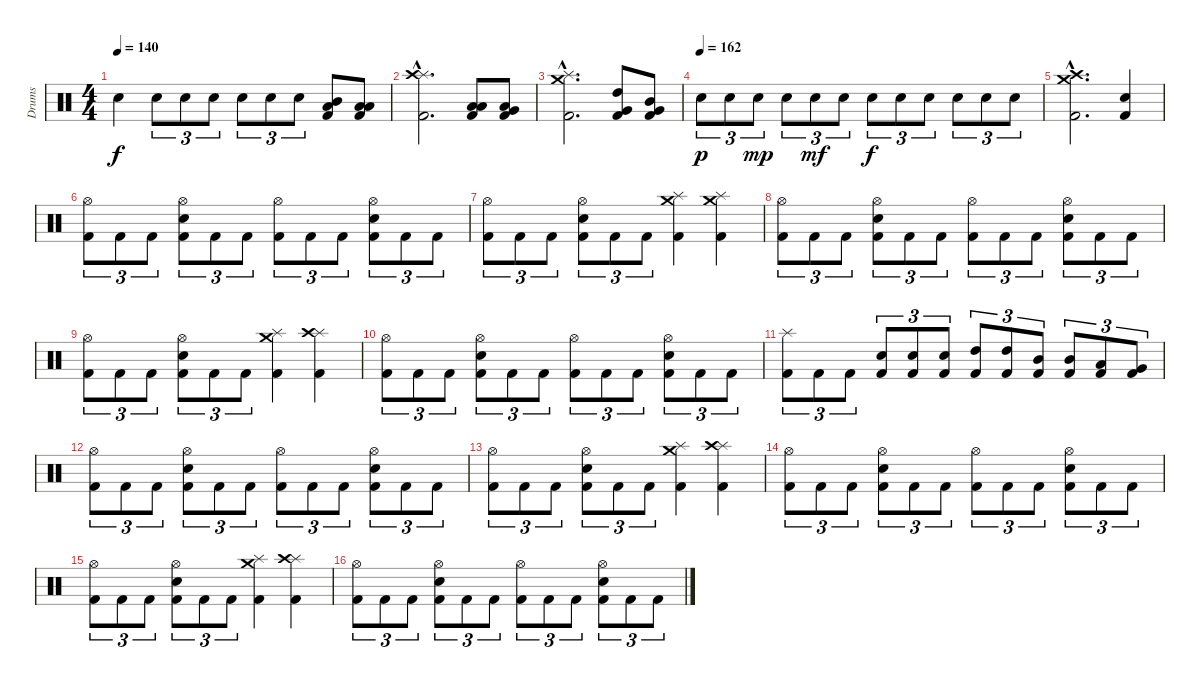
\track ("Drums" "Drums") {instrument percussion}
\staff {score}
\articulation defaults
\ts (4 4)
\tempo 140
\clef neutral
\ks c "Electric Snare (hit)".4{dy f} "Electric Snare (hit)".8{tu (3 2)} "Electric Snare (hit)".8{tu (3 2)} "Electric Snare (hit)".8{tu (3 2)} "Electric Snare (hit)".8{tu (3 2)} "Electric Snare (hit)".8{tu (3 2)} "Electric Snare (hit)".8{tu (3 2)}
("Kick (hit) 2" "Mid Tom (hit)" "Low Floor Tom (hit)").8 ("Kick (hit) 2" "Low Tom (hit)" "Low Floor Tom (hit)").8 |
\section ("" "")
("Kick (hit) 2"{hac} "Splash (hit)"{hac} "Crash high (hit)"{hac}).2{d} ("Kick (hit) 2" "Low Tom (hit)" "Low Floor Tom (hit)").8 ("Kick (hit) 2" "Very Low Tom (hit)" "Low Floor Tom (hit)").8 |
("Kick (hit) 2"{hac} "Splash (hit)"{hac} "Crash medium (hit)"{hac}).2{d} ("Kick (hit) 2" "High Tom (hit)" "Very Low Tom (hit)").8 ("Kick (hit) 2" "Mid Tom (hit)" "Very Low Tom (hit)").8 |
\tempo (162)
"Electric Snare (hit)".8{tu (3 2) dy p} "Electric Snare (hit)".8{tu (3 2)} "Electric Snare (hit)".8{tu (3 2) dy mp} "Electric Snare (hit)".8{tu (3 2)} "Electric Snare (hit)".8{tu (3 2) dy mf} "Electric Snare (hit)".8{tu (3 2)} "Electric Snare (hit)".8{tu (3 2) dy f} "Electric Snare (hit)".8{tu (3 2)} "Electric Snare (hit)".8{tu (3 2)} "Electric Snare (hit)".8{tu (3 2)} "Electric Snare (hit)".8{tu (3 2)} "Electric Snare (hit)".8{tu (3 2)} |
("Kick (hit) 2"{hac} "Crash high (hit)"{hac} "Crash medium (hit)"{hac}).2{d} ("Kick (hit) 2" "Electric Snare (hit)").4 |
\section ("" "")
("Kick (hit) 2" "Hi-Hat (open)").8{tu (3 2)} "Kick (hit) 2".8{tu (3 2)} "Kick (hit) 2".8{tu (3 2)} ("Kick (hit) 2" "Electric Snare (hit)" "Hi-Hat (open)").8{tu (3 2)} "Kick (hit) 2".8{tu (3 2)} "Kick (hit) 2".8{tu (3 2)} ("Kick (hit) 2" "Hi-Hat (open)").8{tu (3 2)} "Kick (hit) 2".8{tu (3 2)} "Kick (hit) 2".8{tu (3 2)} ("Kick (hit) 2" "Electric Snare (hit)" "Hi-Hat (open)").8{tu (3 2)} "Kick (hit) 2".8{tu (3 2)} "Kick (hit) 2".8{tu (3 2)} |
("Kick (hit) 2" "Hi-Hat (open)").8{tu (3 2)} "Kick (hit) 2".8{tu (3 2)} "Kick (hit) 2".8{tu (3 2)} ("Kick (hit) 2" "Electric Snare (hit)" "Hi-Hat (open)").8{tu (3 2)} "Kick (hit) 2".8{tu (3 2)} "Kick (hit) 2".8{tu (3 2)} ("Kick (hit) 2" "Splash (hit)" "Crash medium (hit)").4 ("Kick (hit) 2" "Splash (hit)" "Crash medium (hit)").4 |
("Kick (hit) 2" "Hi-Hat (open)").8{tu (3 2)} "Kick (hit) 2".8{tu (3 2)} "Kick (hit) 2".8{tu (3 2)} ("Kick (hit) 2" "Electric Snare (hit)" "Hi-Hat (open)").8{tu (3 2)} "Kick (hit) 2".8{tu (3 2)} "Kick (hit) 2".8{tu (3 2)} ("Kick (hit) 2" "Hi-Hat (open)").8{tu (3 2)} "Kick (hit) 2".8{tu (3 2)} "Kick (hit) 2".8{tu (3 2)} ("Kick (hit) 2" "Electric Snare (hit)" "Hi-Hat (open)").8{tu (3 2)} "Kick (hit) 2".8{tu (3 2)} "Kick (hit) 2".8{tu (3 2)} |
("Kick (hit) 2" "Hi-Hat (open)").8{tu (3 2)} "Kick (hit) 2".8{tu (3 2)} "Kick (hit) 2".8{tu (3 2)} ("Kick (hit) 2" "Electric Snare (hit)" "Hi-Hat (open)").8{tu (3 2)} "Kick (hit) 2".8{tu (3 2)} "Kick (hit) 2".8{tu (3 2)} ("Kick (hit) 2" "Splash (hit)" "Crash medium (hit)").4 ("Kick (hit) 2" "Splash (hit)" "Crash high (hit)").4 |
("Kick (hit) 2" "Hi-Hat (open)").8{tu (3 2)} "Kick (hit) 2".8{tu (3 2)} "Kick (hit) 2".8{tu (3 2)} ("Kick (hit) 2" "Electric Snare (hit)" "Hi-Hat (open)").8{tu (3 2)} "Kick (hit) 2".8{tu (3 2)} "Kick (hit) 2".8{tu (3 2)} ("Kick (hit) 2" "Hi-Hat (open)").8{tu (3 2)} "Kick (hit) 2".8{tu (3 2)} "Kick (hit) 2".8{tu (3 2)} ("Kick (hit) 2" "Electric Snare (hit)" "Hi-Hat (open)").8{tu (3 2)} "Kick (hit) 2".8{tu (3 2)} "Kick (hit) 2".8{tu (3 2)} |
("Kick (hit) 2" "Splash (hit)").8{tu (3 2)} "Kick (hit) 2".8{tu (3 2)} "Kick (hit) 2".8{tu (3 2)} ("Kick (hit) 2" "Electric Snare (hit)").8{tu (3 2)} ("Kick (hit) 2" "Electric Snare (hit)").8{tu (3 2)} ("Kick (hit) 2" "Electric Snare (hit)").8{tu (3 2)} ("Kick (hit) 2" "High Tom (hit)").8{tu (3 2)} ("Kick (hit) 2" "High Tom (hit)").8{tu (3 2)} ("Kick (hit) 2" "Mid Tom (hit)").8{tu (3 2)} ("Kick (hit) 2" "Mid Tom (hit)").8{tu (3 2)} ("Kick (hit) 2" "Low Tom (hit)").8{tu (3 2)} ("Kick (hit) 2" "Very Low Tom (hit)").8{tu (3 2)} |
("Kick (hit) 2" "Hi-Hat (open)").8{tu (3 2)} "Kick (hit) 2".8{tu (3 2)} "Kick (hit) 2".8{tu (3 2)} ("Kick (hit) 2" "Electric Snare (hit)" "Hi-Hat (open)").8{tu (3 2)} "Kick (hit) 2".8{tu (3 2)} "Kick (hit) 2".8{tu (3 2)} ("Kick (hit) 2" "Hi-Hat (open)").8{tu (3 2)} "Kick (hit) 2".8{tu (3 2)} "Kick (hit) 2".8{tu (3 2)} ("Kick (hit) 2" "Electric Snare (hit)" "Hi-Hat (open)").8{tu (3 2)} "Kick (hit) 2".8{tu (3 2)} "Kick (hit) 2".8{tu (3 2)} |
("Kick (hit) 2" "Hi-Hat (open)").8{tu (3 2)} "Kick (hit) 2".8{tu (3 2)} "Kick (hit) 2".8{tu (3 2)} ("Kick (hit) 2" "Electric Snare (hit)" "Hi-Hat (open)").8{tu (3 2)} "Kick (hit) 2".8{tu (3 2)} "Kick (hit) 2".8{tu (3 2)} ("Kick (hit) 2" "Splash (hit)" "Crash medium (hit)").4 ("Kick (hit) 2" "Splash (hit)" "Crash high (hit)").4 |
("Kick (hit) 2" "Hi-Hat (open)").8{tu (3 2)} "Kick (hit) 2".8{tu (3 2)} "Kick (hit) 2".8{tu (3 2)} ("Kick (hit) 2" "Electric Snare (hit)" "Hi-Hat (open)").8{tu (3 2)} "Kick (hit) 2".8{tu (3 2)} "Kick (hit) 2".8{tu (3 2)} ("Kick (hit) 2" "Hi-Hat (open)").8{tu (3 2)} "Kick (hit) 2".8{tu (3 2)} "Kick (hit) 2".8{tu (3 2)} ("Kick (hit) 2" "Electric Snare (hit)" "Hi-Hat (open)").8{tu (3 2)} "Kick (hit) 2".8{tu (3 2)} "Kick (hit) 2".8{tu (3 2)} |
("Kick (hit) 2" "Hi-Hat (open)").8{tu (3 2)} "Kick (hit) 2".8{tu (3 2)} "Kick (hit) 2".8{tu (3 2)} ("Kick (hit) 2" "Electric Snare (hit)" "Hi-Hat (open)").8{tu (3 2)} "Kick (hit) 2".8{tu (3 2)} "Kick (hit) 2".8{tu (3 2)} ("Kick (hit) 2" "Splash (hit)" "Crash medium (hit)").4 ("Kick (hit) 2" "Splash (hit)" "Crash high (hit)").4 |
("Kick (hit) 2" "Hi-Hat (open)").8{tu (3 2)} "Kick (hit) 2".8{tu (3 2)} "Kick (hit) 2".8{tu (3 2)} ("Kick (hit) 2" "Electric Snare (hit)" "Hi-Hat (open)").8{tu (3 2)} "Kick (hit) 2".8{tu (3 2)} "Kick (hit) 2".8{tu (3 2)} ("Kick (hit) 2" "Hi-Hat (open)").8{tu (3 2)} "Kick (hit) 2".8{tu (3 2)} "Kick (hit) 2".8{tu (3 2)} ("Kick (hit) 2" "Electric Snare (hit)" "Hi-Hat (open)").8{tu (3 2)} "Kick (hit) 2".8{tu (3 2)} "Kick (hit) 2".8{tu (3 2)}
